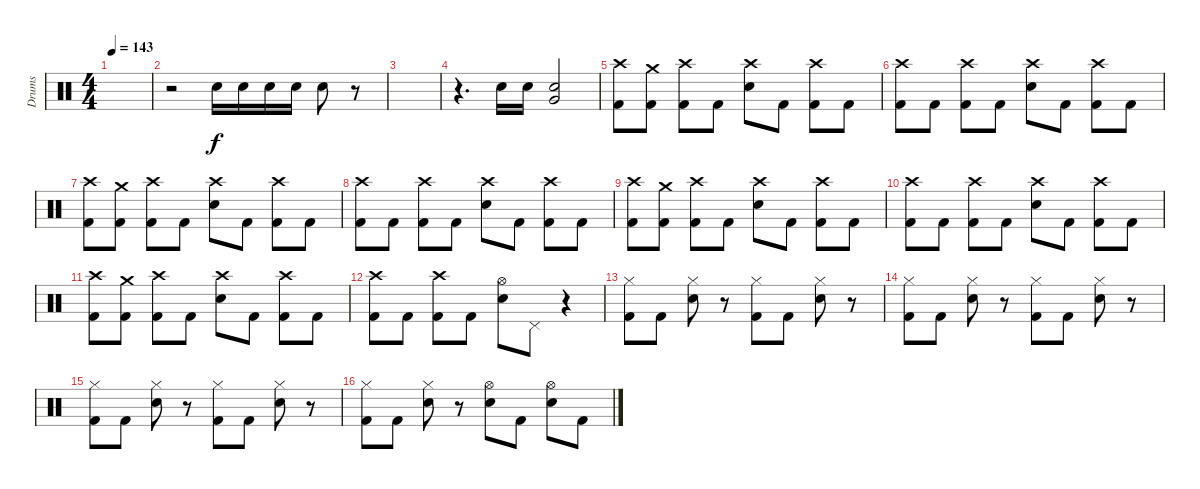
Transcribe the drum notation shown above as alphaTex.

\track ("Drums" "Drums") {instrument percussion}
\staff {score}
\articulation defaults
\ts (4 4)
\tempo 143
\clef neutral
\ks c
|
r.2 "Electric Snare (hit)".16 "Electric Snare (hit)".16 "Electric Snare (hit)".16 "Electric Snare (hit)".16 "Electric Snare (hit)".8 r.8 |
|
r.4{d} "Electric Snare (hit)".16 "Electric Snare (hit)".16 ("Very Low Tom (hit)" "Electric Snare (hit)").2 |
("Crash high (hit)" "Kick (hit) 2").8 ("Crash medium (hit)" "Kick (hit) 2").8 ("Crash high (hit)" "Kick (hit) 2").8 "Kick (hit) 2".8 ("Crash high (hit)" "Electric Snare (hit)").8 "Kick (hit) 2".8 ("Crash high (hit)" "Kick (hit) 2").8 "Kick (hit) 2".8 |
("Crash high (hit)" "Kick (hit) 2").8 "Kick (hit) 2".8 ("Crash high (hit)" "Kick (hit) 2").8 "Kick (hit) 2".8 ("Crash high (hit)" "Electric Snare (hit)").8 "Kick (hit) 2".8 ("Crash high (hit)" "Kick (hit) 2").8 "Kick (hit) 2".8 |
("Crash high (hit)" "Kick (hit) 2").8 ("Crash medium (hit)" "Kick (hit) 2").8 ("Crash high (hit)" "Kick (hit) 2").8 "Kick (hit) 2".8 ("Crash high (hit)" "Electric Snare (hit)").8 "Kick (hit) 2".8 ("Crash high (hit)" "Kick (hit) 2").8 "Kick (hit) 2".8 |
("Crash high (hit)" "Kick (hit) 2").8 "Kick (hit) 2".8 ("Crash high (hit)" "Kick (hit) 2").8 "Kick (hit) 2".8 ("Crash high (hit)" "Electric Snare (hit)").8 "Kick (hit) 2".8 ("Crash high (hit)" "Kick (hit) 2").8 "Kick (hit) 2".8 |
("Crash high (hit)" "Kick (hit) 2").8 ("Crash medium (hit)" "Kick (hit) 2").8 ("Crash high (hit)" "Kick (hit) 2").8 "Kick (hit) 2".8 ("Crash high (hit)" "Electric Snare (hit)").8 "Kick (hit) 2".8 ("Crash high (hit)" "Kick (hit) 2").8 "Kick (hit) 2".8 |
("Crash high (hit)" "Kick (hit) 2").8 "Kick (hit) 2".8 ("Crash high (hit)" "Kick (hit) 2").8 "Kick (hit) 2".8 ("Crash high (hit)" "Electric Snare (hit)").8 "Kick (hit) 2".8 ("Crash high (hit)" "Kick (hit) 2").8 "Kick (hit) 2".8 |
("Crash high (hit)" "Kick (hit) 2").8 ("Crash medium (hit)" "Kick (hit) 2").8 ("Crash high (hit)" "Kick (hit) 2").8 "Kick (hit) 2".8 ("Crash high (hit)" "Electric Snare (hit)").8 "Kick (hit) 2".8 ("Crash high (hit)" "Kick (hit) 2").8 "Kick (hit) 2".8 |
("Crash high (hit)" "Kick (hit) 2").8 "Kick (hit) 2".8 ("Crash high (hit)" "Kick (hit) 2").8 "Kick (hit) 2".8 ("Hi-Hat (open)" "Electric Snare (hit)").8 "Pedal Hi-Hat (hit)".8 r.4 |
("Hi-Hat (closed)" "Kick (hit) 2").8 "Kick (hit) 2".8 ("Hi-Hat (closed)" "Electric Snare (hit)").8 r.8 ("Hi-Hat (closed)" "Kick (hit) 2").8 "Kick (hit) 2".8 ("Hi-Hat (closed)" "Electric Snare (hit)").8 r.8 |
("Hi-Hat (closed)" "Kick (hit) 2").8 "Kick (hit) 2".8 ("Hi-Hat (closed)" "Electric Snare (hit)").8 r.8 ("Hi-Hat (closed)" "Kick (hit) 2").8 "Kick (hit) 2".8 ("Hi-Hat (closed)" "Electric Snare (hit)").8 r.8 |
("Hi-Hat (closed)" "Kick (hit) 2").8 "Kick (hit) 2".8 ("Hi-Hat (closed)" "Electric Snare (hit)").8 r.8 ("Hi-Hat (closed)" "Kick (hit) 2").8 "Kick (hit) 2".8 ("Hi-Hat (closed)" "Electric Snare (hit)").8 r.8 |
("Hi-Hat (closed)" "Kick (hit) 2").8 "Kick (hit) 2".8 ("Hi-Hat (closed)" "Electric Snare (hit)").8 r.8 ("Hi-Hat (open)" "Electric Snare (hit)").8 "Kick (hit) 2".8 ("Hi-Hat (open)" "Electric Snare (hit)").8 "Kick (hit) 2".8
